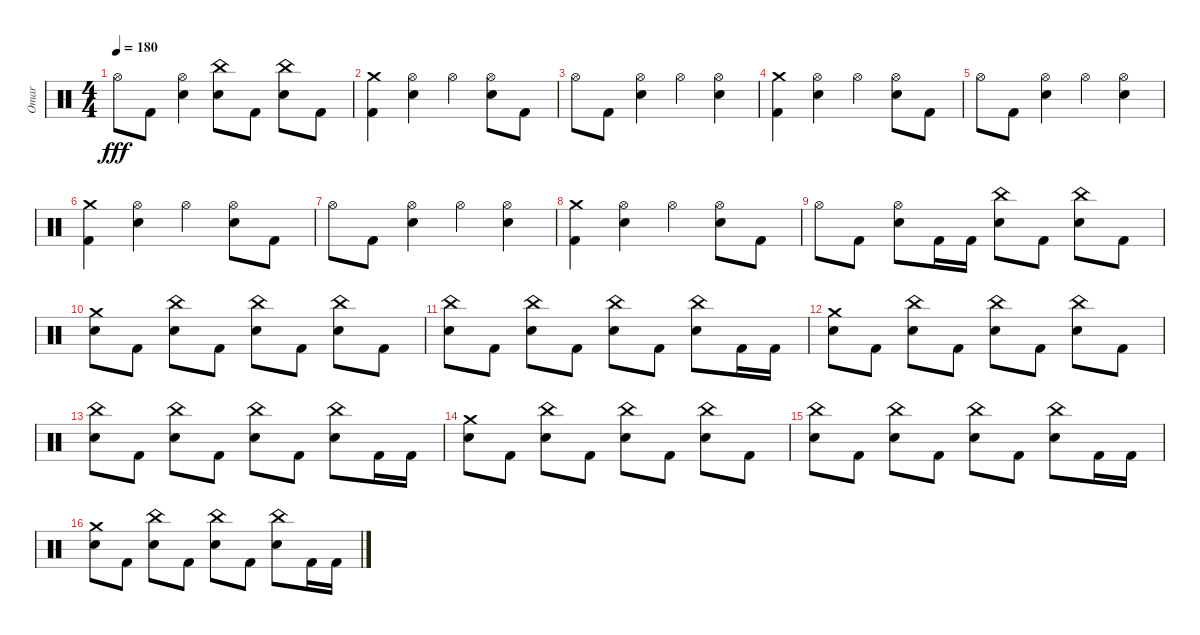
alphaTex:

\track ("Omar" "Omar") {instrument percussion}
\staff {score}
\articulation defaults
\ts (4 4)
\tempo 180
\clef neutral
\ks c "Hi-Hat (open)".8{dy fff} "Kick (hit) 2".8
("Hi-Hat (open)" "Electric Snare (hit)").4 ("China (hit)" "Electric Snare (hit)").8 "Kick (hit) 2".8 ("China (hit)" "Electric Snare (hit)").8 "Kick (hit) 2".8 |
("Crash medium (hit)" "Kick (hit) 2").4 ("Hi-Hat (open)" "Electric Snare (hit)").4 "Hi-Hat (open)".4 ("Hi-Hat (open)" "Electric Snare (hit)").8 "Kick (hit) 2".8 |
"Hi-Hat (open)".8 "Kick (hit) 2".8 ("Hi-Hat (open)" "Electric Snare (hit)").4 "Hi-Hat (open)".4 ("Hi-Hat (open)" "Electric Snare (hit)").4 |
("Crash medium (hit)" "Kick (hit) 2").4 ("Hi-Hat (open)" "Electric Snare (hit)").4 "Hi-Hat (open)".4 ("Hi-Hat (open)" "Electric Snare (hit)").8 "Kick (hit) 2".8 |
"Hi-Hat (open)".8 "Kick (hit) 2".8 ("Hi-Hat (open)" "Electric Snare (hit)").4 "Hi-Hat (open)".4 ("Hi-Hat (open)" "Electric Snare (hit)").4 |
("Crash medium (hit)" "Kick (hit) 2").4 ("Hi-Hat (open)" "Electric Snare (hit)").4 "Hi-Hat (open)".4 ("Hi-Hat (open)" "Electric Snare (hit)").8 "Kick (hit) 2".8 |
"Hi-Hat (open)".8 "Kick (hit) 2".8 ("Hi-Hat (open)" "Electric Snare (hit)").4 "Hi-Hat (open)".4 ("Hi-Hat (open)" "Electric Snare (hit)").4 |
("Crash medium (hit)" "Kick (hit) 2").4 ("Hi-Hat (open)" "Electric Snare (hit)").4 "Hi-Hat (open)".4 ("Hi-Hat (open)" "Electric Snare (hit)").8 "Kick (hit) 2".8 |
"Hi-Hat (open)".8 "Kick (hit) 2".8 ("Hi-Hat (open)" "Electric Snare (hit)").8 "Kick (hit) 2".16 "Kick (hit) 2".16 ("China (hit)" "Electric Snare (hit)").8 "Kick (hit) 2".8 ("China (hit)" "Electric Snare (hit)").8 "Kick (hit) 2".8 |
("Crash medium (hit)" "Electric Snare (hit)").8 "Kick (hit) 2".8 ("China (hit)" "Electric Snare (hit)").8 "Kick (hit) 2".8 ("China (hit)" "Electric Snare (hit)").8 "Kick (hit) 2".8 ("China (hit)" "Electric Snare (hit)").8 "Kick (hit) 2".8 |
("China (hit)" "Electric Snare (hit)").8 "Kick (hit) 2".8 ("China (hit)" "Electric Snare (hit)").8 "Kick (hit) 2".8 ("China (hit)" "Electric Snare (hit)").8 "Kick (hit) 2".8 ("China (hit)" "Electric Snare (hit)").8 "Kick (hit) 2".16 "Kick (hit) 2".16 |
("Crash medium (hit)" "Electric Snare (hit)").8 "Kick (hit) 2".8 ("China (hit)" "Electric Snare (hit)").8 "Kick (hit) 2".8 ("China (hit)" "Electric Snare (hit)").8 "Kick (hit) 2".8 ("China (hit)" "Electric Snare (hit)").8 "Kick (hit) 2".8 |
("China (hit)" "Electric Snare (hit)").8 "Kick (hit) 2".8 ("China (hit)" "Electric Snare (hit)").8 "Kick (hit) 2".8 ("China (hit)" "Electric Snare (hit)").8 "Kick (hit) 2".8 ("China (hit)" "Electric Snare (hit)").8 "Kick (hit) 2".16 "Kick (hit) 2".16 |
("Crash medium (hit)" "Electric Snare (hit)").8 "Kick (hit) 2".8 ("China (hit)" "Electric Snare (hit)").8 "Kick (hit) 2".8 ("China (hit)" "Electric Snare (hit)").8 "Kick (hit) 2".8 ("China (hit)" "Electric Snare (hit)").8 "Kick (hit) 2".8 |
("China (hit)" "Electric Snare (hit)").8 "Kick (hit) 2".8 ("China (hit)" "Electric Snare (hit)").8 "Kick (hit) 2".8 ("China (hit)" "Electric Snare (hit)").8 "Kick (hit) 2".8 ("China (hit)" "Electric Snare (hit)").8 "Kick (hit) 2".16 "Kick (hit) 2".16 |
("Crash medium (hit)" "Electric Snare (hit)").8 "Kick (hit) 2".8 ("China (hit)" "Electric Snare (hit)").8 "Kick (hit) 2".8 ("China (hit)" "Electric Snare (hit)").8 "Kick (hit) 2".8 ("China (hit)" "Electric Snare (hit)").8 "Kick (hit) 2".16 "Kick (hit) 2".16
